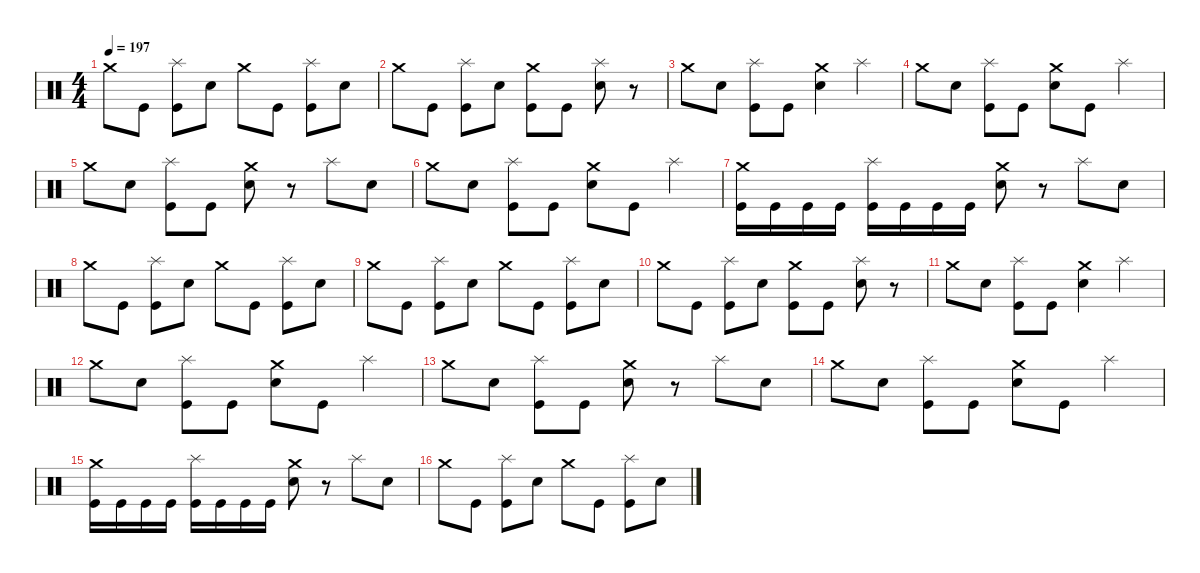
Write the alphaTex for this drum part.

\defaultSystemsLayout 4
\hideDynamics
\bracketExtendMode nobrackets
\singleTrackTrackNamePolicy hidden
\multiTrackTrackNamePolicy hidden
\firstSystemTrackNameMode fullname
\firstSystemTrackNameOrientation horizontal
\otherSystemsTrackNameOrientation horizontal
\track ("Drums" "drm.") {defaultSystemsLayout 4 instrument percussion}
\staff {score}
\articulation defaults
\ts (4 4)
\tempo 197
\clef neutral
\ks c "Crash medium (hit)".8{dy mf beam Down} "Kick (hit)".8{dy f beam Down}
("Splash (hit)" "Kick (hit)").8{dy mf beam Down} "Snare (hit) 2".8{dy f beam Down} "Crash medium (hit)".8{dy mf beam Down} "Kick (hit)".8{dy f beam Down} ("Splash (hit)" "Kick (hit)").8{dy mf beam Down} "Snare (hit) 2".8{dy f beam Down} |
"Crash medium (hit)".8{dy mf beam Down} "Kick (hit)".8{dy f beam Down} ("Splash (hit)" "Kick (hit)").8{dy mf beam Down} "Snare (hit) 2".8{dy f beam Down} ("Crash medium (hit)" "Kick (hit)").8{dy mf beam Down} "Kick (hit)".8{dy f beam Down} ("Splash (hit)" "Snare (hit) 2").8{dy mf beam Down} r.8{beam Down} |
"Crash medium (hit)".8{beam Down} "Snare (hit) 2".8{dy f beam Down} ("Splash (hit)" "Kick (hit)").8{dy mf beam Down} "Kick (hit)".8{dy f beam Down} ("Crash medium (hit)" "Snare (hit) 2").4{dy mf beam Down} "Splash (hit)".4{beam Down} |
"Crash medium (hit)".8{beam Down} "Snare (hit) 2".8{dy f beam Down} ("Splash (hit)" "Kick (hit)").8{dy mf beam Down} "Kick (hit)".8{dy f beam Down} ("Crash medium (hit)" "Snare (hit) 2").8{dy mf beam Down} "Kick (hit)".8{dy f beam Down} "Splash (hit)".4{dy mf beam Down} |
"Crash medium (hit)".8{beam Down} "Snare (hit) 2".8{dy f beam Down} ("Splash (hit)" "Kick (hit)").8{dy mf beam Down} "Kick (hit)".8{dy f beam Down} ("Crash medium (hit)" "Snare (hit) 2").8{dy mf beam Down} r.8{beam Down} "Splash (hit)".8{beam Down} "Snare (hit) 2".8{dy f beam Down} |
"Crash medium (hit)".8{dy mf beam Down} "Snare (hit) 2".8{dy f beam Down} ("Splash (hit)" "Kick (hit)").8{dy mf beam Down} "Kick (hit)".8{dy f beam Down} ("Crash medium (hit)" "Snare (hit) 2").8{dy mf beam Down} "Kick (hit)".8{dy f beam Down} "Splash (hit)".4{dy mf beam Down} |
("Crash medium (hit)" "Kick (hit)").16{beam Down} "Kick (hit)".16{dy f beam Down} "Kick (hit)".16{beam Down} "Kick (hit)".16{beam Down} ("Splash (hit)" "Kick (hit)").16{dy mf beam Down} "Kick (hit)".16{dy f beam Down} "Kick (hit)".16{beam Down} "Kick (hit)".16{beam Down} ("Crash medium (hit)" "Snare (hit) 2").8{dy mf beam Down} r.8{beam Down} "Splash (hit)".8{beam Down} "Snare (hit) 2".8{dy f beam Down} |
"Crash medium (hit)".8{dy mf beam Down} "Kick (hit)".8{dy f beam Down} ("Splash (hit)" "Kick (hit)").8{dy mf beam Down} "Snare (hit) 2".8{dy f beam Down} "Crash medium (hit)".8{dy mf beam Down} "Kick (hit)".8{dy f beam Down} ("Splash (hit)" "Kick (hit)").8{dy mf beam Down} "Snare (hit) 2".8{dy f beam Down} |
"Crash medium (hit)".8{dy mf beam Down} "Kick (hit)".8{dy f beam Down} ("Splash (hit)" "Kick (hit)").8{dy mf beam Down} "Snare (hit) 2".8{dy f beam Down} "Crash medium (hit)".8{dy mf beam Down} "Kick (hit)".8{dy f beam Down} ("Splash (hit)" "Kick (hit)").8{dy mf beam Down} "Snare (hit) 2".8{dy f beam Down} |
"Crash medium (hit)".8{dy mf beam Down} "Kick (hit)".8{dy f beam Down} ("Splash (hit)" "Kick (hit)").8{dy mf beam Down} "Snare (hit) 2".8{dy f beam Down} ("Crash medium (hit)" "Kick (hit)").8{dy mf beam Down} "Kick (hit)".8{dy f beam Down} ("Splash (hit)" "Snare (hit) 2").8{dy mf beam Down} r.8{beam Down} |
"Crash medium (hit)".8{beam Down} "Snare (hit) 2".8{dy f beam Down} ("Splash (hit)" "Kick (hit)").8{dy mf beam Down} "Kick (hit)".8{dy f beam Down} ("Crash medium (hit)" "Snare (hit) 2").4{dy mf beam Down} "Splash (hit)".4{beam Down} |
"Crash medium (hit)".8{beam Down} "Snare (hit) 2".8{dy f beam Down} ("Splash (hit)" "Kick (hit)").8{dy mf beam Down} "Kick (hit)".8{dy f beam Down} ("Crash medium (hit)" "Snare (hit) 2").8{dy mf beam Down} "Kick (hit)".8{dy f beam Down} "Splash (hit)".4{dy mf beam Down} |
"Crash medium (hit)".8{beam Down} "Snare (hit) 2".8{dy f beam Down} ("Splash (hit)" "Kick (hit)").8{dy mf beam Down} "Kick (hit)".8{dy f beam Down} ("Crash medium (hit)" "Snare (hit) 2").8{dy mf beam Down} r.8{beam Down} "Splash (hit)".8{beam Down} "Snare (hit) 2".8{dy f beam Down} |
"Crash medium (hit)".8{dy mf beam Down} "Snare (hit) 2".8{dy f beam Down} ("Splash (hit)" "Kick (hit)").8{dy mf beam Down} "Kick (hit)".8{dy f beam Down} ("Crash medium (hit)" "Snare (hit) 2").8{dy mf beam Down} "Kick (hit)".8{dy f beam Down} "Splash (hit)".4{dy mf beam Down} |
("Crash medium (hit)" "Kick (hit)").16{beam Down} "Kick (hit)".16{dy f beam Down} "Kick (hit)".16{beam Down} "Kick (hit)".16{beam Down} ("Splash (hit)" "Kick (hit)").16{dy mf beam Down} "Kick (hit)".16{dy f beam Down} "Kick (hit)".16{beam Down} "Kick (hit)".16{beam Down} ("Crash medium (hit)" "Snare (hit) 2").8{dy mf beam Down} r.8{beam Down} "Splash (hit)".8{beam Down} "Snare (hit) 2".8{dy f beam Down} |
"Crash medium (hit)".8{dy mf beam Down} "Kick (hit)".8{dy f beam Down} ("Splash (hit)" "Kick (hit)").8{dy mf beam Down} "Snare (hit) 2".8{dy f beam Down} "Crash medium (hit)".8{dy mf beam Down} "Kick (hit)".8{dy f beam Down} ("Splash (hit)" "Kick (hit)").8{dy mf beam Down} "Snare (hit) 2".8{dy f beam Down}
